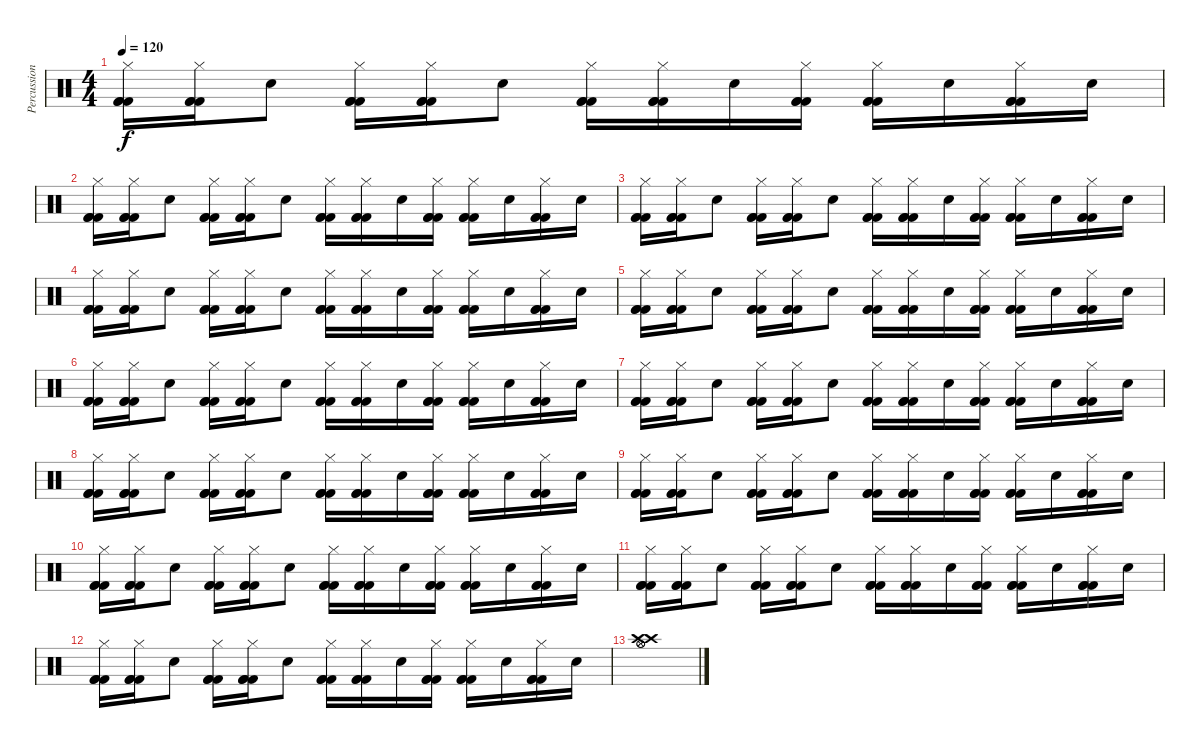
\track ("Percussion" "Percussion") {instrument percussion}
\staff {score}
\articulation defaults
\ts (4 4)
\tempo 120
\clef neutral
\ks c
("Kick (hit) 2" "Kick (hit) 2" "Hi-Hat (closed)" "Kick (hit) 2").16{dy f} ("Kick (hit) 2" "Kick (hit) 2" "Hi-Hat (closed)" "Kick (hit) 2").16 "Snare (hit) 2".8 ("Kick (hit) 2" "Kick (hit) 2" "Hi-Hat (closed)" "Kick (hit) 2").16 ("Kick (hit) 2" "Kick (hit) 2" "Hi-Hat (closed)" "Kick (hit) 2").16 "Snare (hit) 2".8 ("Kick (hit) 2" "Kick (hit) 2" "Hi-Hat (closed)" "Kick (hit) 2").16 ("Kick (hit) 2" "Kick (hit) 2" "Hi-Hat (closed)" "Kick (hit) 2").16 "Snare (hit) 2".16 ("Kick (hit) 2" "Kick (hit) 2" "Hi-Hat (closed)" "Kick (hit) 2").16 ("Kick (hit) 2" "Kick (hit) 2" "Hi-Hat (closed)" "Kick (hit) 2").16 "Snare (hit) 2".16 ("Kick (hit) 2" "Kick (hit) 2" "Hi-Hat (closed)" "Kick (hit) 2").16 "Snare (hit) 2".16 |
("Kick (hit) 2" "Kick (hit) 2" "Hi-Hat (closed)" "Kick (hit) 2").16 ("Kick (hit) 2" "Kick (hit) 2" "Hi-Hat (closed)" "Kick (hit) 2").16 "Snare (hit) 2".8 ("Kick (hit) 2" "Kick (hit) 2" "Hi-Hat (closed)" "Kick (hit) 2").16 ("Kick (hit) 2" "Kick (hit) 2" "Hi-Hat (closed)" "Kick (hit) 2").16 "Snare (hit) 2".8 ("Kick (hit) 2" "Kick (hit) 2" "Hi-Hat (closed)" "Kick (hit) 2").16 ("Kick (hit) 2" "Kick (hit) 2" "Hi-Hat (closed)" "Kick (hit) 2").16 "Snare (hit) 2".16 ("Kick (hit) 2" "Kick (hit) 2" "Hi-Hat (closed)" "Kick (hit) 2").16 ("Kick (hit) 2" "Kick (hit) 2" "Hi-Hat (closed)" "Kick (hit) 2").16 "Snare (hit) 2".16 ("Kick (hit) 2" "Kick (hit) 2" "Hi-Hat (closed)" "Kick (hit) 2").16 "Snare (hit) 2".16 |
("Kick (hit) 2" "Kick (hit) 2" "Hi-Hat (closed)" "Kick (hit) 2").16 ("Kick (hit) 2" "Kick (hit) 2" "Hi-Hat (closed)" "Kick (hit) 2").16 "Snare (hit) 2".8 ("Kick (hit) 2" "Kick (hit) 2" "Hi-Hat (closed)" "Kick (hit) 2").16 ("Kick (hit) 2" "Kick (hit) 2" "Hi-Hat (closed)" "Kick (hit) 2").16 "Snare (hit) 2".8 ("Kick (hit) 2" "Kick (hit) 2" "Hi-Hat (closed)" "Kick (hit) 2").16 ("Kick (hit) 2" "Kick (hit) 2" "Hi-Hat (closed)" "Kick (hit) 2").16 "Snare (hit) 2".16 ("Kick (hit) 2" "Kick (hit) 2" "Hi-Hat (closed)" "Kick (hit) 2").16 ("Kick (hit) 2" "Kick (hit) 2" "Hi-Hat (closed)" "Kick (hit) 2").16 "Snare (hit) 2".16 ("Kick (hit) 2" "Kick (hit) 2" "Hi-Hat (closed)" "Kick (hit) 2").16 "Snare (hit) 2".16 |
("Kick (hit) 2" "Kick (hit) 2" "Hi-Hat (closed)" "Kick (hit) 2").16 ("Kick (hit) 2" "Kick (hit) 2" "Hi-Hat (closed)" "Kick (hit) 2").16 "Snare (hit) 2".8 ("Kick (hit) 2" "Kick (hit) 2" "Hi-Hat (closed)" "Kick (hit) 2").16 ("Kick (hit) 2" "Kick (hit) 2" "Hi-Hat (closed)" "Kick (hit) 2").16 "Snare (hit) 2".8 ("Kick (hit) 2" "Kick (hit) 2" "Hi-Hat (closed)" "Kick (hit) 2").16 ("Kick (hit) 2" "Kick (hit) 2" "Hi-Hat (closed)" "Kick (hit) 2").16 "Snare (hit) 2".16 ("Kick (hit) 2" "Kick (hit) 2" "Hi-Hat (closed)" "Kick (hit) 2").16 ("Kick (hit) 2" "Kick (hit) 2" "Hi-Hat (closed)" "Kick (hit) 2").16 "Snare (hit) 2".16 ("Kick (hit) 2" "Kick (hit) 2" "Hi-Hat (closed)" "Kick (hit) 2").16 "Snare (hit) 2".16 |
("Kick (hit) 2" "Kick (hit) 2" "Hi-Hat (closed)" "Kick (hit) 2").16 ("Kick (hit) 2" "Kick (hit) 2" "Hi-Hat (closed)" "Kick (hit) 2").16 "Snare (hit) 2".8 ("Kick (hit) 2" "Kick (hit) 2" "Hi-Hat (closed)" "Kick (hit) 2").16 ("Kick (hit) 2" "Kick (hit) 2" "Hi-Hat (closed)" "Kick (hit) 2").16 "Snare (hit) 2".8 ("Kick (hit) 2" "Kick (hit) 2" "Hi-Hat (closed)" "Kick (hit) 2").16 ("Kick (hit) 2" "Kick (hit) 2" "Hi-Hat (closed)" "Kick (hit) 2").16 "Snare (hit) 2".16 ("Kick (hit) 2" "Kick (hit) 2" "Hi-Hat (closed)" "Kick (hit) 2").16 ("Kick (hit) 2" "Kick (hit) 2" "Hi-Hat (closed)" "Kick (hit) 2").16 "Snare (hit) 2".16 ("Kick (hit) 2" "Kick (hit) 2" "Hi-Hat (closed)" "Kick (hit) 2").16 "Snare (hit) 2".16 |
("Kick (hit) 2" "Kick (hit) 2" "Hi-Hat (closed)" "Kick (hit) 2").16 ("Kick (hit) 2" "Kick (hit) 2" "Hi-Hat (closed)" "Kick (hit) 2").16 "Snare (hit) 2".8 ("Kick (hit) 2" "Kick (hit) 2" "Hi-Hat (closed)" "Kick (hit) 2").16 ("Kick (hit) 2" "Kick (hit) 2" "Hi-Hat (closed)" "Kick (hit) 2").16 "Snare (hit) 2".8 ("Kick (hit) 2" "Kick (hit) 2" "Hi-Hat (closed)" "Kick (hit) 2").16 ("Kick (hit) 2" "Kick (hit) 2" "Hi-Hat (closed)" "Kick (hit) 2").16 "Snare (hit) 2".16 ("Kick (hit) 2" "Kick (hit) 2" "Hi-Hat (closed)" "Kick (hit) 2").16 ("Kick (hit) 2" "Kick (hit) 2" "Hi-Hat (closed)" "Kick (hit) 2").16 "Snare (hit) 2".16 ("Kick (hit) 2" "Kick (hit) 2" "Hi-Hat (closed)" "Kick (hit) 2").16 "Snare (hit) 2".16 |
("Kick (hit) 2" "Kick (hit) 2" "Hi-Hat (closed)" "Kick (hit) 2").16 ("Kick (hit) 2" "Kick (hit) 2" "Hi-Hat (closed)" "Kick (hit) 2").16 "Snare (hit) 2".8 ("Kick (hit) 2" "Kick (hit) 2" "Hi-Hat (closed)" "Kick (hit) 2").16 ("Kick (hit) 2" "Kick (hit) 2" "Hi-Hat (closed)" "Kick (hit) 2").16 "Snare (hit) 2".8 ("Kick (hit) 2" "Kick (hit) 2" "Hi-Hat (closed)" "Kick (hit) 2").16 ("Kick (hit) 2" "Kick (hit) 2" "Hi-Hat (closed)" "Kick (hit) 2").16 "Snare (hit) 2".16 ("Kick (hit) 2" "Kick (hit) 2" "Hi-Hat (closed)" "Kick (hit) 2").16 ("Kick (hit) 2" "Kick (hit) 2" "Hi-Hat (closed)" "Kick (hit) 2").16 "Snare (hit) 2".16 ("Kick (hit) 2" "Kick (hit) 2" "Hi-Hat (closed)" "Kick (hit) 2").16 "Snare (hit) 2".16 |
("Kick (hit) 2" "Kick (hit) 2" "Hi-Hat (closed)" "Kick (hit) 2").16 ("Kick (hit) 2" "Kick (hit) 2" "Hi-Hat (closed)" "Kick (hit) 2").16 "Snare (hit) 2".8 ("Kick (hit) 2" "Kick (hit) 2" "Hi-Hat (closed)" "Kick (hit) 2").16 ("Kick (hit) 2" "Kick (hit) 2" "Hi-Hat (closed)" "Kick (hit) 2").16 "Snare (hit) 2".8 ("Kick (hit) 2" "Kick (hit) 2" "Hi-Hat (closed)" "Kick (hit) 2").16 ("Kick (hit) 2" "Kick (hit) 2" "Hi-Hat (closed)" "Kick (hit) 2").16 "Snare (hit) 2".16 ("Kick (hit) 2" "Kick (hit) 2" "Hi-Hat (closed)" "Kick (hit) 2").16 ("Kick (hit) 2" "Kick (hit) 2" "Hi-Hat (closed)" "Kick (hit) 2").16 "Snare (hit) 2".16 ("Kick (hit) 2" "Kick (hit) 2" "Hi-Hat (closed)" "Kick (hit) 2").16 "Snare (hit) 2".16 |
("Kick (hit) 2" "Kick (hit) 2" "Hi-Hat (closed)" "Kick (hit) 2").16 ("Kick (hit) 2" "Kick (hit) 2" "Hi-Hat (closed)" "Kick (hit) 2").16 "Snare (hit) 2".8 ("Kick (hit) 2" "Kick (hit) 2" "Hi-Hat (closed)" "Kick (hit) 2").16 ("Kick (hit) 2" "Kick (hit) 2" "Hi-Hat (closed)" "Kick (hit) 2").16 "Snare (hit) 2".8 ("Kick (hit) 2" "Kick (hit) 2" "Hi-Hat (closed)" "Kick (hit) 2").16 ("Kick (hit) 2" "Kick (hit) 2" "Hi-Hat (closed)" "Kick (hit) 2").16 "Snare (hit) 2".16 ("Kick (hit) 2" "Kick (hit) 2" "Hi-Hat (closed)" "Kick (hit) 2").16 ("Kick (hit) 2" "Kick (hit) 2" "Hi-Hat (closed)" "Kick (hit) 2").16 "Snare (hit) 2".16 ("Kick (hit) 2" "Kick (hit) 2" "Hi-Hat (closed)" "Kick (hit) 2").16 "Snare (hit) 2".16 |
("Kick (hit) 2" "Kick (hit) 2" "Hi-Hat (closed)" "Kick (hit) 2").16 ("Kick (hit) 2" "Kick (hit) 2" "Hi-Hat (closed)" "Kick (hit) 2").16 "Snare (hit) 2".8 ("Kick (hit) 2" "Kick (hit) 2" "Hi-Hat (closed)" "Kick (hit) 2").16 ("Kick (hit) 2" "Kick (hit) 2" "Hi-Hat (closed)" "Kick (hit) 2").16 "Snare (hit) 2".8 ("Kick (hit) 2" "Kick (hit) 2" "Hi-Hat (closed)" "Kick (hit) 2").16 ("Kick (hit) 2" "Kick (hit) 2" "Hi-Hat (closed)" "Kick (hit) 2").16 "Snare (hit) 2".16 ("Kick (hit) 2" "Kick (hit) 2" "Hi-Hat (closed)" "Kick (hit) 2").16 ("Kick (hit) 2" "Kick (hit) 2" "Hi-Hat (closed)" "Kick (hit) 2").16 "Snare (hit) 2".16 ("Kick (hit) 2" "Kick (hit) 2" "Hi-Hat (closed)" "Kick (hit) 2").16 "Snare (hit) 2".16 |
("Kick (hit) 2" "Kick (hit) 2" "Hi-Hat (closed)" "Kick (hit) 2").16 ("Kick (hit) 2" "Kick (hit) 2" "Hi-Hat (closed)" "Kick (hit) 2").16 "Snare (hit) 2".8 ("Kick (hit) 2" "Kick (hit) 2" "Hi-Hat (closed)" "Kick (hit) 2").16 ("Kick (hit) 2" "Kick (hit) 2" "Hi-Hat (closed)" "Kick (hit) 2").16 "Snare (hit) 2".8 ("Kick (hit) 2" "Kick (hit) 2" "Hi-Hat (closed)" "Kick (hit) 2").16 ("Kick (hit) 2" "Kick (hit) 2" "Hi-Hat (closed)" "Kick (hit) 2").16 "Snare (hit) 2".16 ("Kick (hit) 2" "Kick (hit) 2" "Hi-Hat (closed)" "Kick (hit) 2").16 ("Kick (hit) 2" "Kick (hit) 2" "Hi-Hat (closed)" "Kick (hit) 2").16 "Snare (hit) 2".16 ("Kick (hit) 2" "Kick (hit) 2" "Hi-Hat (closed)" "Kick (hit) 2").16 "Snare (hit) 2".16 |
("Kick (hit) 2" "Kick (hit) 2" "Hi-Hat (closed)" "Kick (hit) 2").16 ("Kick (hit) 2" "Kick (hit) 2" "Hi-Hat (closed)" "Kick (hit) 2").16 "Snare (hit) 2".8 ("Kick (hit) 2" "Kick (hit) 2" "Hi-Hat (closed)" "Kick (hit) 2").16 ("Kick (hit) 2" "Kick (hit) 2" "Hi-Hat (closed)" "Kick (hit) 2").16 "Snare (hit) 2".8 ("Kick (hit) 2" "Kick (hit) 2" "Hi-Hat (closed)" "Kick (hit) 2").16 ("Kick (hit) 2" "Kick (hit) 2" "Hi-Hat (closed)" "Kick (hit) 2").16 "Snare (hit) 2".16 ("Kick (hit) 2" "Kick (hit) 2" "Hi-Hat (closed)" "Kick (hit) 2").16 ("Kick (hit) 2" "Kick (hit) 2" "Hi-Hat (closed)" "Kick (hit) 2").16 "Snare (hit) 2".16 ("Kick (hit) 2" "Kick (hit) 2" "Hi-Hat (closed)" "Kick (hit) 2").16 "Snare (hit) 2".16 |
("Hi-Hat (open)" "Crash high (hit)" "Hi-Hat (open)" "Crash high (hit)").1
